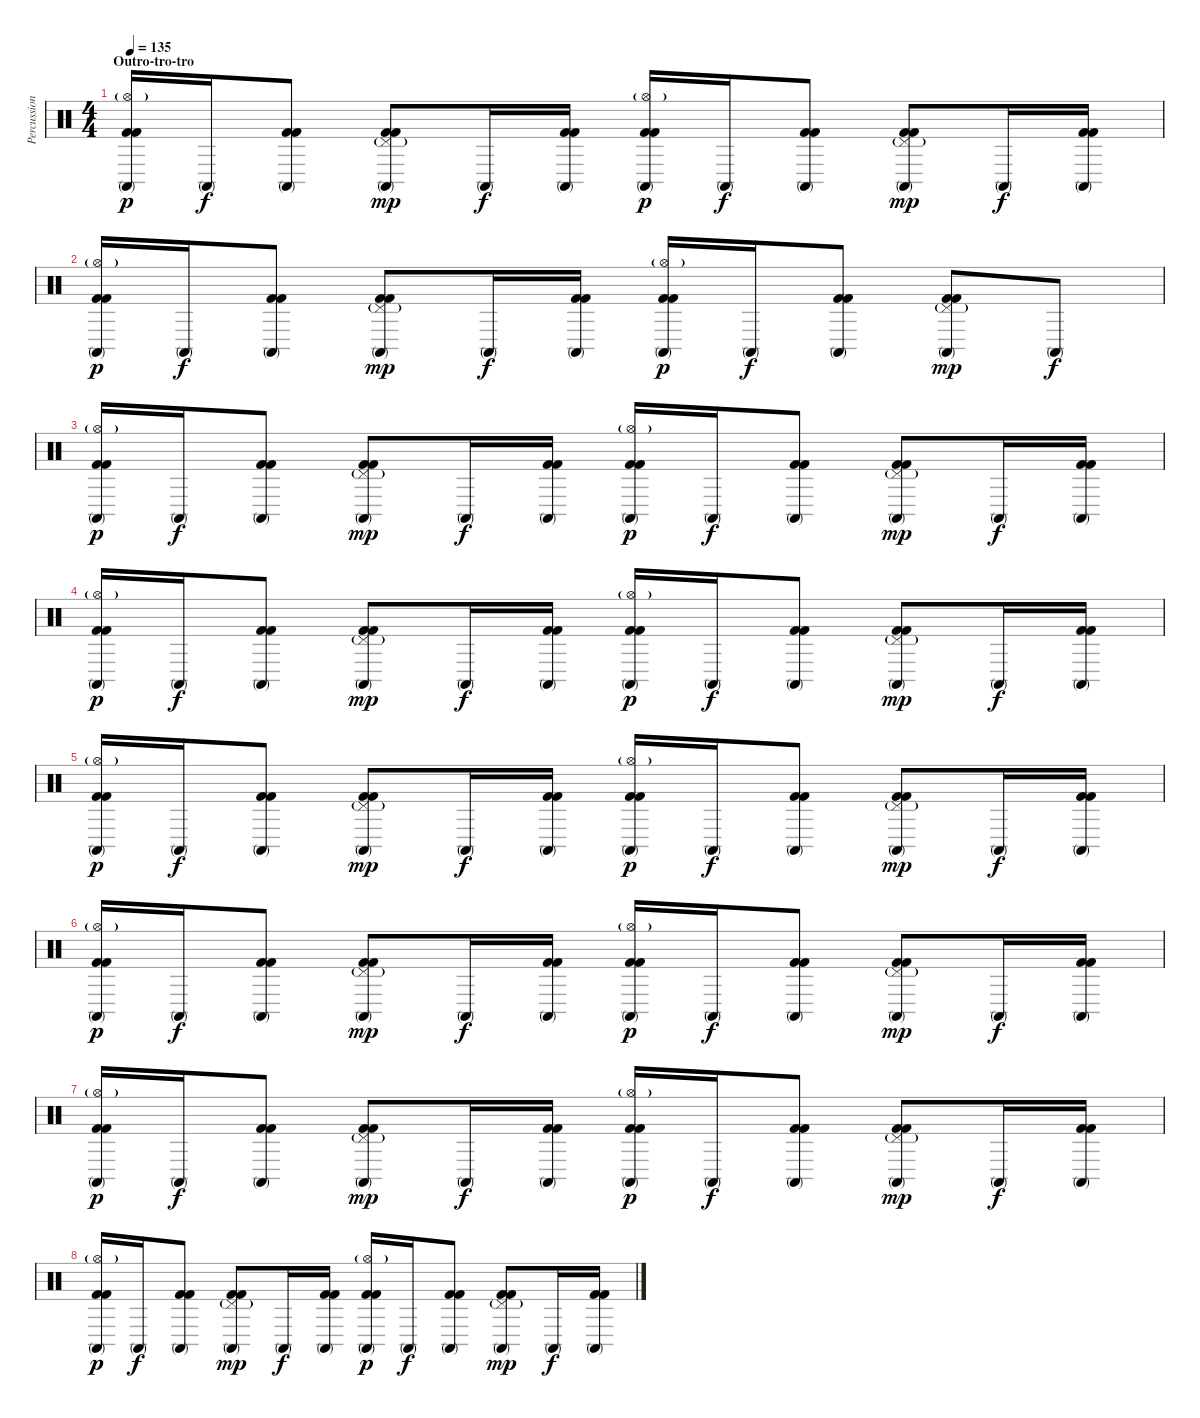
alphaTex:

\track ("Percussion" "Percussion") {instrument percussion}
\staff {score}
\articulation defaults
\ts (4 4)
\section ("" "Outro-tro-tro")
\tempo 135
\clef neutral
\ks c
("Conga high (mute)" "Hi-Hat (open)"{g} "Kick (hit) 2" "Kick (hit) 2").16{dy p} "Conga high (mute)".16{dy f} ("Conga high (mute)" "Kick (hit) 2" "Kick (hit) 2").8 ("Conga high (mute)" "Pedal Hi-Hat (hit)"{g} "Kick (hit) 2" "Kick (hit) 2").8{dy mp} "Conga high (mute)".16{dy f} ("Conga high (mute)" "Kick (hit) 2" "Kick (hit) 2").16 ("Conga high (mute)" "Hi-Hat (open)"{g} "Kick (hit) 2" "Kick (hit) 2").16{dy p} "Conga high (mute)".16{dy f} ("Conga high (mute)" "Kick (hit) 2" "Kick (hit) 2").8 ("Conga high (mute)" "Pedal Hi-Hat (hit)"{g} "Kick (hit) 2" "Kick (hit) 2").8{dy mp} "Conga high (mute)".16{dy f} ("Conga high (mute)" "Kick (hit) 2" "Kick (hit) 2").16 |
("Conga high (mute)" "Hi-Hat (open)"{g} "Kick (hit) 2" "Kick (hit) 2").16{dy p} "Conga high (mute)".16{dy f} ("Conga high (mute)" "Kick (hit) 2" "Kick (hit) 2").8 ("Conga high (mute)" "Pedal Hi-Hat (hit)"{g} "Kick (hit) 2" "Kick (hit) 2").8{dy mp} "Conga high (mute)".16{dy f} ("Conga high (mute)" "Kick (hit) 2" "Kick (hit) 2").16 ("Conga high (mute)" "Hi-Hat (open)"{g} "Kick (hit) 2" "Kick (hit) 2").16{dy p} "Conga high (mute)".16{dy f} ("Conga high (mute)" "Kick (hit) 2" "Kick (hit) 2").8 ("Conga high (mute)" "Pedal Hi-Hat (hit)"{g} "Kick (hit) 2" "Kick (hit) 2").8{dy mp} "Conga high (mute)".8{dy f} |
("Conga high (mute)" "Hi-Hat (open)"{g} "Kick (hit) 2" "Kick (hit) 2").16{dy p} "Conga high (mute)".16{dy f} ("Conga high (mute)" "Kick (hit) 2" "Kick (hit) 2").8 ("Conga high (mute)" "Pedal Hi-Hat (hit)"{g} "Kick (hit) 2" "Kick (hit) 2").8{dy mp} "Conga high (mute)".16{dy f} ("Conga high (mute)" "Kick (hit) 2" "Kick (hit) 2").16 ("Conga high (mute)" "Hi-Hat (open)"{g} "Kick (hit) 2" "Kick (hit) 2").16{dy p} "Conga high (mute)".16{dy f} ("Conga high (mute)" "Kick (hit) 2" "Kick (hit) 2").8 ("Conga high (mute)" "Pedal Hi-Hat (hit)"{g} "Kick (hit) 2" "Kick (hit) 2").8{dy mp} "Conga high (mute)".16{dy f} ("Conga high (mute)" "Kick (hit) 2" "Kick (hit) 2").16 |
("Conga high (mute)" "Hi-Hat (open)"{g} "Kick (hit) 2" "Kick (hit) 2").16{dy p} "Conga high (mute)".16{dy f} ("Conga high (mute)" "Kick (hit) 2" "Kick (hit) 2").8 ("Conga high (mute)" "Pedal Hi-Hat (hit)"{g} "Kick (hit) 2" "Kick (hit) 2").8{dy mp} "Conga high (mute)".16{dy f} ("Conga high (mute)" "Kick (hit) 2" "Kick (hit) 2").16 ("Conga high (mute)" "Hi-Hat (open)"{g} "Kick (hit) 2" "Kick (hit) 2").16{dy p} "Conga high (mute)".16{dy f} ("Conga high (mute)" "Kick (hit) 2" "Kick (hit) 2").8 ("Conga high (mute)" "Pedal Hi-Hat (hit)"{g} "Kick (hit) 2" "Kick (hit) 2").8{dy mp} "Conga high (mute)".16{dy f} ("Conga high (mute)" "Kick (hit) 2" "Kick (hit) 2").16 |
("Conga high (mute)" "Hi-Hat (open)"{g} "Kick (hit) 2" "Kick (hit) 2").16{dy p} "Conga high (mute)".16{dy f} ("Conga high (mute)" "Kick (hit) 2" "Kick (hit) 2").8 ("Conga high (mute)" "Pedal Hi-Hat (hit)"{g} "Kick (hit) 2" "Kick (hit) 2").8{dy mp} "Conga high (mute)".16{dy f} ("Conga high (mute)" "Kick (hit) 2" "Kick (hit) 2").16 ("Conga high (mute)" "Hi-Hat (open)"{g} "Kick (hit) 2" "Kick (hit) 2").16{dy p} "Conga high (mute)".16{dy f} ("Conga high (mute)" "Kick (hit) 2" "Kick (hit) 2").8 ("Conga high (mute)" "Pedal Hi-Hat (hit)"{g} "Kick (hit) 2" "Kick (hit) 2").8{dy mp} "Conga high (mute)".16{dy f} ("Conga high (mute)" "Kick (hit) 2" "Kick (hit) 2").16 |
("Conga high (mute)" "Hi-Hat (open)"{g} "Kick (hit) 2" "Kick (hit) 2").16{dy p} "Conga high (mute)".16{dy f} ("Conga high (mute)" "Kick (hit) 2" "Kick (hit) 2").8 ("Conga high (mute)" "Pedal Hi-Hat (hit)"{g} "Kick (hit) 2" "Kick (hit) 2").8{dy mp} "Conga high (mute)".16{dy f} ("Conga high (mute)" "Kick (hit) 2" "Kick (hit) 2").16 ("Conga high (mute)" "Hi-Hat (open)"{g} "Kick (hit) 2" "Kick (hit) 2").16{dy p} "Conga high (mute)".16{dy f} ("Conga high (mute)" "Kick (hit) 2" "Kick (hit) 2").8 ("Conga high (mute)" "Pedal Hi-Hat (hit)"{g} "Kick (hit) 2" "Kick (hit) 2").8{dy mp} "Conga high (mute)".16{dy f} ("Conga high (mute)" "Kick (hit) 2" "Kick (hit) 2").16 |
("Conga high (mute)" "Hi-Hat (open)"{g} "Kick (hit) 2" "Kick (hit) 2").16{dy p} "Conga high (mute)".16{dy f} ("Conga high (mute)" "Kick (hit) 2" "Kick (hit) 2").8 ("Conga high (mute)" "Pedal Hi-Hat (hit)"{g} "Kick (hit) 2" "Kick (hit) 2").8{dy mp} "Conga high (mute)".16{dy f} ("Conga high (mute)" "Kick (hit) 2" "Kick (hit) 2").16 ("Conga high (mute)" "Hi-Hat (open)"{g} "Kick (hit) 2" "Kick (hit) 2").16{dy p} "Conga high (mute)".16{dy f} ("Conga high (mute)" "Kick (hit) 2" "Kick (hit) 2").8 ("Conga high (mute)" "Pedal Hi-Hat (hit)"{g} "Kick (hit) 2" "Kick (hit) 2").8{dy mp} "Conga high (mute)".16{dy f} ("Conga high (mute)" "Kick (hit) 2" "Kick (hit) 2").16 |
("Conga high (mute)" "Hi-Hat (open)"{g} "Kick (hit) 2" "Kick (hit) 2").16{dy p} "Conga high (mute)".16{dy f} ("Conga high (mute)" "Kick (hit) 2" "Kick (hit) 2").8 ("Conga high (mute)" "Pedal Hi-Hat (hit)"{g} "Kick (hit) 2" "Kick (hit) 2").8{dy mp} "Conga high (mute)".16{dy f} ("Conga high (mute)" "Kick (hit) 2" "Kick (hit) 2").16 ("Conga high (mute)" "Hi-Hat (open)"{g} "Kick (hit) 2" "Kick (hit) 2").16{dy p} "Conga high (mute)".16{dy f} ("Conga high (mute)" "Kick (hit) 2" "Kick (hit) 2").8 ("Conga high (mute)" "Pedal Hi-Hat (hit)"{g} "Kick (hit) 2" "Kick (hit) 2").8{dy mp} "Conga high (mute)".16{dy f} ("Conga high (mute)" "Kick (hit) 2" "Kick (hit) 2").16
